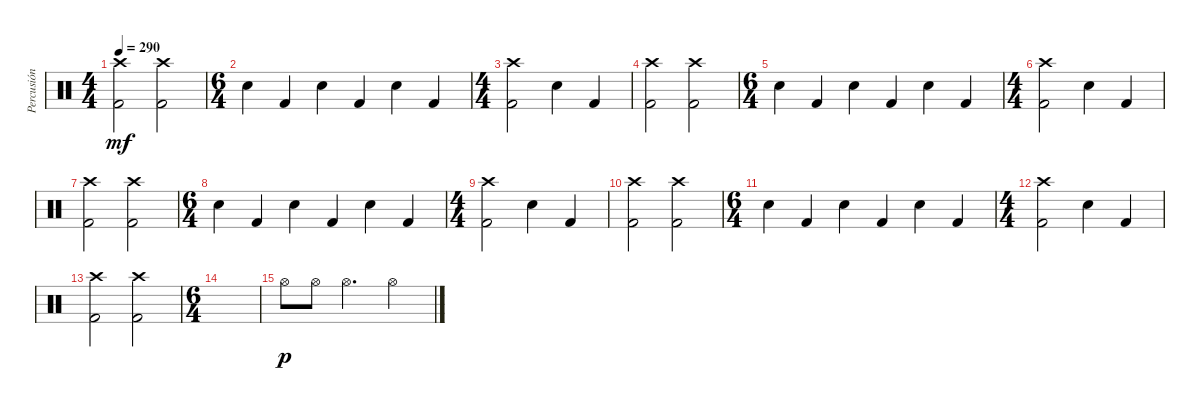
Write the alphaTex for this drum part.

\track ("Percusión" "Percusión") {instrument percussion}
\staff {score}
\articulation defaults
\ts (4 4)
\tempo 290
\clef neutral
\ks c
("Crash high (hit)" "Kick (hit) 2").2{dy mf} ("Crash high (hit)" "Kick (hit) 2").2 |
\ts (6 4)
"Snare (hit) 2".4 "Kick (hit) 2".4 "Snare (hit) 2".4 "Kick (hit) 2".4 "Snare (hit) 2".4 "Kick (hit) 2".4 |
\ts (4 4)
("Crash high (hit)" "Kick (hit) 2").2 "Snare (hit) 2".4 "Kick (hit) 2".4 |
("Crash high (hit)" "Kick (hit) 2").2 ("Crash high (hit)" "Kick (hit) 2").2 |
\ts (6 4)
"Snare (hit) 2".4 "Kick (hit) 2".4 "Snare (hit) 2".4 "Kick (hit) 2".4 "Snare (hit) 2".4 "Kick (hit) 2".4 |
\ts (4 4)
("Crash high (hit)" "Kick (hit) 2").2 "Snare (hit) 2".4 "Kick (hit) 2".4 |
("Crash high (hit)" "Kick (hit) 2").2 ("Crash high (hit)" "Kick (hit) 2").2 |
\ts (6 4)
"Snare (hit) 2".4 "Kick (hit) 2".4 "Snare (hit) 2".4 "Kick (hit) 2".4 "Snare (hit) 2".4 "Kick (hit) 2".4 |
\ts (4 4)
("Crash high (hit)" "Kick (hit) 2").2 "Snare (hit) 2".4 "Kick (hit) 2".4 |
("Crash high (hit)" "Kick (hit) 2").2 ("Crash high (hit)" "Kick (hit) 2").2 |
\ts (6 4)
"Snare (hit) 2".4 "Kick (hit) 2".4 "Snare (hit) 2".4 "Kick (hit) 2".4 "Snare (hit) 2".4 "Kick (hit) 2".4 |
\ts (4 4)
("Crash high (hit)" "Kick (hit) 2").2 "Snare (hit) 2".4 "Kick (hit) 2".4 |
("Crash high (hit)" "Kick (hit) 2").2 ("Crash high (hit)" "Kick (hit) 2").2 |
\ts (6 4)
|
"Hi-Hat (open)".8{dy p} "Hi-Hat (open)".8 "Hi-Hat (open)".2{d} "Hi-Hat (open)".2
